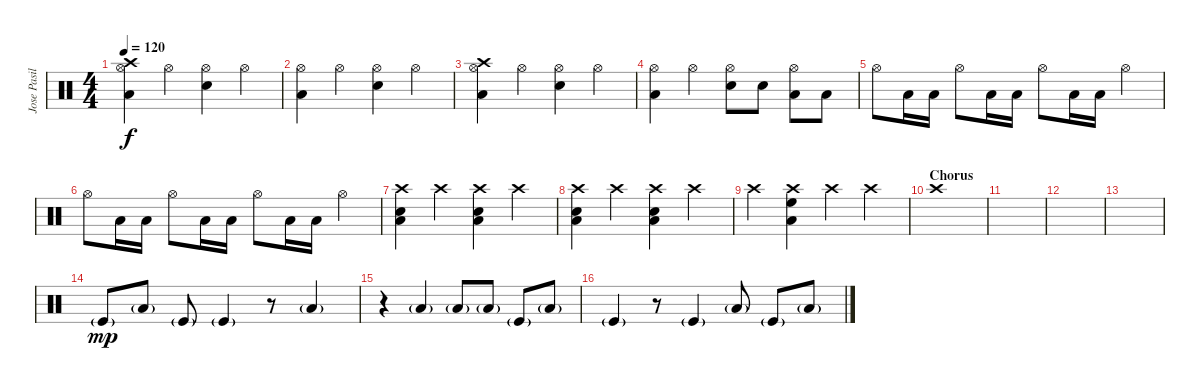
\track ("Jose Pasillas II" "Jose Pasil") {instrument percussion}
\staff {score}
\articulation defaults
\ts (4 4)
\tempo 120
\clef neutral
\ks c
("Crash high (hit)" "Hi-Hat (open)" "Low Tom (hit)").4{dy f} "Hi-Hat (open)".4 ("Hi-Hat (open)" "Electric Snare (hit)").4 "Hi-Hat (open)".4 |
("Hi-Hat (open)" "Low Tom (hit)").4 "Hi-Hat (open)".4 ("Hi-Hat (open)" "Electric Snare (hit)").4 "Hi-Hat (open)".4 |
("Crash high (hit)" "Hi-Hat (open)" "Low Tom (hit)").4 "Hi-Hat (open)".4 ("Hi-Hat (open)" "Electric Snare (hit)").4 "Hi-Hat (open)".4 |
("Hi-Hat (open)" "Low Tom (hit)").4 "Hi-Hat (open)".4 ("Hi-Hat (open)" "Electric Snare (hit)").8 "Electric Snare (hit)".8 ("Hi-Hat (open)" "Low Tom (hit)").8 "Low Tom (hit)".8 |
"Hi-Hat (open)".8 "Low Tom (hit)".16 "Low Tom (hit)".16 "Hi-Hat (open)".8 "Low Tom (hit)".16 "Low Tom (hit)".16 "Hi-Hat (open)".8 "Low Tom (hit)".16 "Low Tom (hit)".16 "Hi-Hat (open)".4 |
"Hi-Hat (open)".8 "Low Tom (hit)".16 "Low Tom (hit)".16 "Hi-Hat (open)".8 "Low Tom (hit)".16 "Low Tom (hit)".16 "Hi-Hat (open)".8 "Low Tom (hit)".16 "Low Tom (hit)".16 "Hi-Hat (open)".4 |
("Crash high (hit)" "Low Tom (hit)" "Electric Snare (hit)").4 "Crash high (hit)".4 ("Crash high (hit)" "Low Tom (hit)" "Electric Snare (hit)").4 "Crash high (hit)".4 |
("Crash high (hit)" "Low Tom (hit)" "Electric Snare (hit)").4 "Crash high (hit)".4 ("Crash high (hit)" "Low Tom (hit)" "Electric Snare (hit)").4 "Crash high (hit)".4 |
"Crash high (hit)".4 ("Crash high (hit)" "Low Tom (hit)" "High Floor Tom (hit)").4 "Crash high (hit)".4 "Crash high (hit)".4 |
\section ("" "Chorus")
"Crash high (hit)".1 |
|
|
|
"Kick (hit)"{g}.8{dy mp} "Low Floor Tom (hit)"{g}.8 "Kick (hit)"{g}.8 "Kick (hit)"{g}.4 r.8 "Low Floor Tom (hit)"{g}.4 |
r.4 "Low Floor Tom (hit)"{g}.4 "Low Floor Tom (hit)"{g}.8 "Low Floor Tom (hit)"{g}.8 "Kick (hit)"{g}.8 "Low Floor Tom (hit)"{g}.8 |
"Kick (hit)"{g}.4 r.8 "Kick (hit)"{g}.4 "Low Floor Tom (hit)"{g}.8 "Kick (hit)"{g}.8 "Low Floor Tom (hit)"{g}.8
